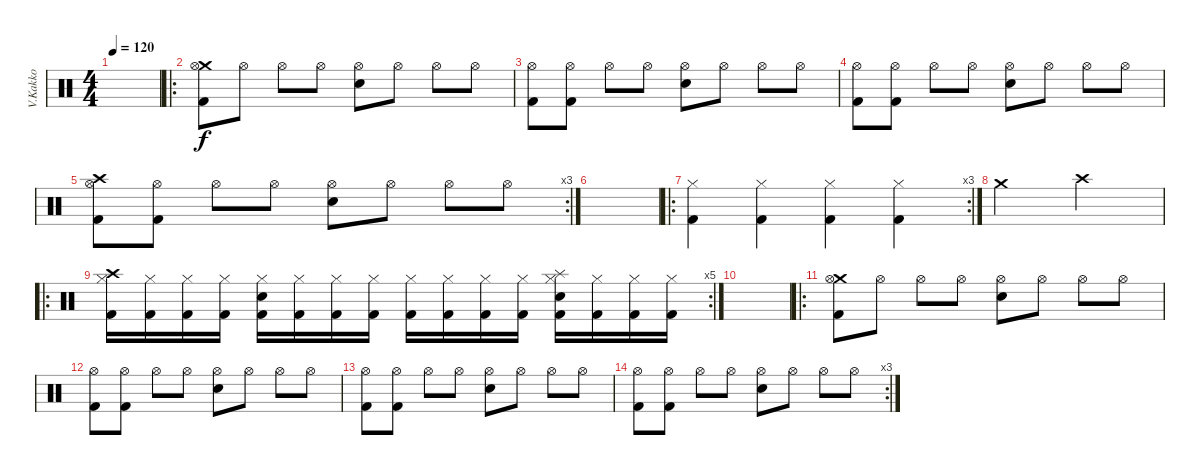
\track ("V.Kakko" "V.Kakko") {instrument percussion}
\staff {score}
\articulation defaults
\ts (4 4)
\tempo 120
\clef neutral
\ks c
|
\ro
("Crash medium (hit)" "Hi-Hat (open)" "Kick (hit) 2").8 "Hi-Hat (open)".8 "Hi-Hat (open)".8 "Hi-Hat (open)".8 ("Hi-Hat (open)" "Snare (hit) 2").8 "Hi-Hat (open)".8 "Hi-Hat (open)".8 "Hi-Hat (open)".8 |
("Hi-Hat (open)" "Kick (hit) 2").8 ("Hi-Hat (open)" "Kick (hit) 2").8 "Hi-Hat (open)".8 "Hi-Hat (open)".8 ("Hi-Hat (open)" "Snare (hit) 2").8 "Hi-Hat (open)".8 "Hi-Hat (open)".8 "Hi-Hat (open)".8 |
("Hi-Hat (open)" "Kick (hit) 2").8 ("Hi-Hat (open)" "Kick (hit) 2").8 "Hi-Hat (open)".8 "Hi-Hat (open)".8 ("Hi-Hat (open)" "Snare (hit) 2").8 "Hi-Hat (open)".8 "Hi-Hat (open)".8 "Hi-Hat (open)".8 |
\rc 3
("Crash high (hit)" "Hi-Hat (open)" "Kick (hit) 2").8 ("Hi-Hat (open)" "Kick (hit) 2").8 "Hi-Hat (open)".8 "Hi-Hat (open)".8 ("Hi-Hat (open)" "Snare (hit) 2").8 "Hi-Hat (open)".8 "Hi-Hat (open)".8 "Hi-Hat (open)".8 |
|
\ro
\rc 3
("Hi-Hat (closed)" "Kick (hit) 2").4 ("Hi-Hat (closed)" "Kick (hit) 2").4 ("Hi-Hat (closed)" "Kick (hit) 2").4 ("Hi-Hat (closed)" "Kick (hit) 2").4 |
"Crash medium (hit)".2 "Crash high (hit)".2 |
\ro
\rc 5
("Crash high (hit)" "Hi-Hat (closed)" "Kick (hit) 2").16 ("Hi-Hat (closed)" "Kick (hit) 2").16 ("Hi-Hat (closed)" "Kick (hit) 2").16 ("Hi-Hat (closed)" "Kick (hit) 2").16 ("Hi-Hat (closed)" "Snare (hit) 2" "Kick (hit) 2").16 ("Hi-Hat (closed)" "Kick (hit) 2").16 ("Hi-Hat (closed)" "Kick (hit) 2").16 ("Hi-Hat (closed)" "Kick (hit) 2").16 ("Hi-Hat (closed)" "Kick (hit) 2").16 ("Hi-Hat (closed)" "Kick (hit) 2").16 ("Hi-Hat (closed)" "Kick (hit) 2").16 ("Hi-Hat (closed)" "Kick (hit) 2").16 ("Splash (hit)" "Hi-Hat (closed)" "Snare (hit) 2" "Kick (hit) 2").16 ("Hi-Hat (closed)" "Kick (hit) 2").16 ("Hi-Hat (closed)" "Kick (hit) 2").16 ("Hi-Hat (closed)" "Kick (hit) 2").16 |
|
\ro
("Crash medium (hit)" "Hi-Hat (open)" "Kick (hit) 2").8 "Hi-Hat (open)".8 "Hi-Hat (open)".8 "Hi-Hat (open)".8 ("Hi-Hat (open)" "Snare (hit) 2").8 "Hi-Hat (open)".8 "Hi-Hat (open)".8 "Hi-Hat (open)".8 |
("Hi-Hat (open)" "Kick (hit) 2").8 ("Hi-Hat (open)" "Kick (hit) 2").8 "Hi-Hat (open)".8 "Hi-Hat (open)".8 ("Hi-Hat (open)" "Snare (hit) 2").8 "Hi-Hat (open)".8 "Hi-Hat (open)".8 "Hi-Hat (open)".8 |
("Hi-Hat (open)" "Kick (hit) 2").8 ("Hi-Hat (open)" "Kick (hit) 2").8 "Hi-Hat (open)".8 "Hi-Hat (open)".8 ("Hi-Hat (open)" "Snare (hit) 2").8 "Hi-Hat (open)".8 "Hi-Hat (open)".8 "Hi-Hat (open)".8 |
\rc 3
("Hi-Hat (open)" "Kick (hit) 2").8 ("Hi-Hat (open)" "Kick (hit) 2").8 "Hi-Hat (open)".8 "Hi-Hat (open)".8 ("Hi-Hat (open)" "Snare (hit) 2").8 "Hi-Hat (open)".8 "Hi-Hat (open)".8 "Hi-Hat (open)".8
